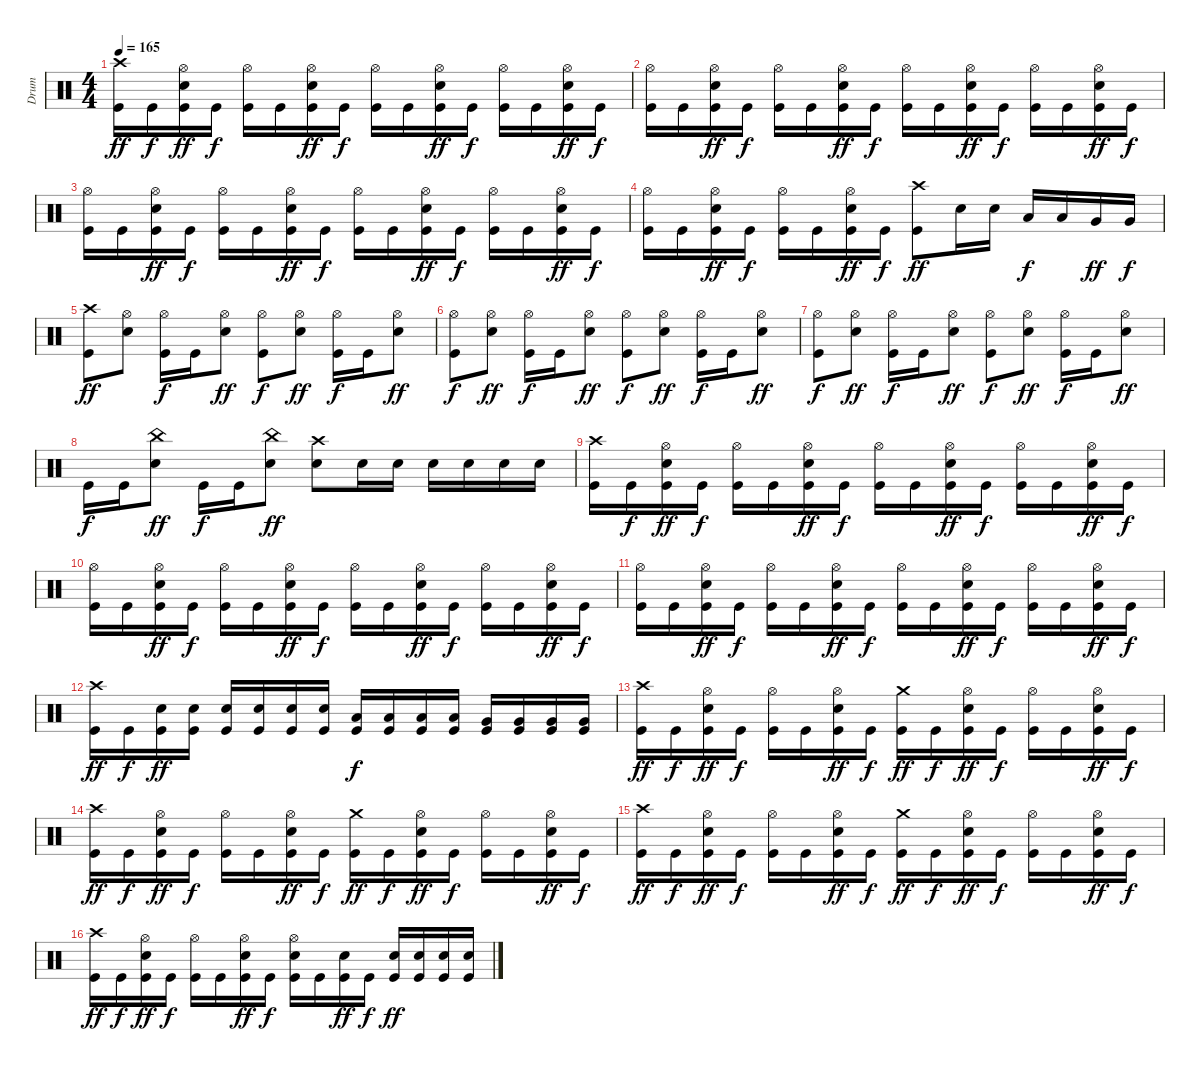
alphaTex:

\track ("Drum" "Drum") {instrument percussion}
\staff {score}
\articulation defaults
\ts (4 4)
\tempo 165
\clef neutral
\ks c
("Kick (hit)" "Crash high (hit)").16{dy ff} "Kick (hit)".16{dy f} ("Kick (hit)" "Electric Snare (hit)" "Hi-Hat (open)").16{dy ff} "Kick (hit)".16{dy f} ("Kick (hit)" "Hi-Hat (open)").16 "Kick (hit)".16 ("Kick (hit)" "Electric Snare (hit)" "Hi-Hat (open)").16{dy ff} "Kick (hit)".16{dy f} ("Kick (hit)" "Hi-Hat (open)").16 "Kick (hit)".16 ("Kick (hit)" "Electric Snare (hit)" "Hi-Hat (open)").16{dy ff} "Kick (hit)".16{dy f} ("Kick (hit)" "Hi-Hat (open)").16 "Kick (hit)".16 ("Kick (hit)" "Electric Snare (hit)" "Hi-Hat (open)").16{dy ff} "Kick (hit)".16{dy f} |
("Kick (hit)" "Hi-Hat (open)").16 "Kick (hit)".16 ("Kick (hit)" "Electric Snare (hit)" "Hi-Hat (open)").16{dy ff} "Kick (hit)".16{dy f} ("Kick (hit)" "Hi-Hat (open)").16 "Kick (hit)".16 ("Kick (hit)" "Electric Snare (hit)" "Hi-Hat (open)").16{dy ff} "Kick (hit)".16{dy f} ("Kick (hit)" "Hi-Hat (open)").16 "Kick (hit)".16 ("Kick (hit)" "Electric Snare (hit)" "Hi-Hat (open)").16{dy ff} "Kick (hit)".16{dy f} ("Kick (hit)" "Hi-Hat (open)").16 "Kick (hit)".16 ("Kick (hit)" "Electric Snare (hit)" "Hi-Hat (open)").16{dy ff} "Kick (hit)".16{dy f} |
("Kick (hit)" "Hi-Hat (open)").16 "Kick (hit)".16 ("Kick (hit)" "Electric Snare (hit)" "Hi-Hat (open)").16{dy ff} "Kick (hit)".16{dy f} ("Kick (hit)" "Hi-Hat (open)").16 "Kick (hit)".16 ("Kick (hit)" "Electric Snare (hit)" "Hi-Hat (open)").16{dy ff} "Kick (hit)".16{dy f} ("Kick (hit)" "Hi-Hat (open)").16 "Kick (hit)".16 ("Kick (hit)" "Electric Snare (hit)" "Hi-Hat (open)").16{dy ff} "Kick (hit)".16{dy f} ("Kick (hit)" "Hi-Hat (open)").16 "Kick (hit)".16 ("Kick (hit)" "Electric Snare (hit)" "Hi-Hat (open)").16{dy ff} "Kick (hit)".16{dy f} |
("Kick (hit)" "Hi-Hat (open)").16 "Kick (hit)".16 ("Kick (hit)" "Electric Snare (hit)" "Hi-Hat (open)").16{dy ff} "Kick (hit)".16{dy f} ("Kick (hit)" "Hi-Hat (open)").16 "Kick (hit)".16 ("Kick (hit)" "Electric Snare (hit)" "Hi-Hat (open)").16{dy ff} "Kick (hit)".16{dy f} ("Kick (hit)" "Crash high (hit)").8{dy ff} "Electric Snare (hit)".16 "Electric Snare (hit)".16 "Low Tom (hit)".16{dy f} "Low Tom (hit)".16 "Very Low Tom (hit)".16{dy ff} "Very Low Tom (hit)".16{dy f} |
("Kick (hit)" "Crash high (hit)").8{dy ff} ("Electric Snare (hit)" "Hi-Hat (open)").8 ("Kick (hit)" "Hi-Hat (open)").16{dy f} "Kick (hit)".16 ("Electric Snare (hit)" "Hi-Hat (open)").8{dy ff} ("Kick (hit)" "Hi-Hat (open)").8{dy f} ("Electric Snare (hit)" "Hi-Hat (open)").8{dy ff} ("Kick (hit)" "Hi-Hat (open)").16{dy f} "Kick (hit)".16 ("Electric Snare (hit)" "Hi-Hat (open)").8{dy ff} |
("Kick (hit)" "Hi-Hat (open)").8{dy f} ("Electric Snare (hit)" "Hi-Hat (open)").8{dy ff} ("Kick (hit)" "Hi-Hat (open)").16{dy f} "Kick (hit)".16 ("Electric Snare (hit)" "Hi-Hat (open)").8{dy ff} ("Kick (hit)" "Hi-Hat (open)").8{dy f} ("Electric Snare (hit)" "Hi-Hat (open)").8{dy ff} ("Kick (hit)" "Hi-Hat (open)").16{dy f} "Kick (hit)".16 ("Electric Snare (hit)" "Hi-Hat (open)").8{dy ff} |
("Kick (hit)" "Hi-Hat (open)").8{dy f} ("Electric Snare (hit)" "Hi-Hat (open)").8{dy ff} ("Kick (hit)" "Hi-Hat (open)").16{dy f} "Kick (hit)".16 ("Electric Snare (hit)" "Hi-Hat (open)").8{dy ff} ("Kick (hit)" "Hi-Hat (open)").8{dy f} ("Electric Snare (hit)" "Hi-Hat (open)").8{dy ff} ("Kick (hit)" "Hi-Hat (open)").16{dy f} "Kick (hit)".16 ("Electric Snare (hit)" "Hi-Hat (open)").8{dy ff} |
"Kick (hit)".16{dy f} "Kick (hit)".16 ("Electric Snare (hit)" "China (hit)").8{dy ff} "Kick (hit)".16{dy f} "Kick (hit)".16 ("Electric Snare (hit)" "China (hit)").8{dy ff} ("Electric Snare (hit)" "Crash high (hit)").8 "Electric Snare (hit)".16 "Electric Snare (hit)".16 "Electric Snare (hit)".16 "Electric Snare (hit)".16 "Electric Snare (hit)".16 "Electric Snare (hit)".16 |
("Kick (hit)" "Crash high (hit)").16 "Kick (hit)".16{dy f} ("Kick (hit)" "Electric Snare (hit)" "Hi-Hat (open)").16{dy ff} "Kick (hit)".16{dy f} ("Kick (hit)" "Hi-Hat (open)").16 "Kick (hit)".16 ("Kick (hit)" "Electric Snare (hit)" "Hi-Hat (open)").16{dy ff} "Kick (hit)".16{dy f} ("Kick (hit)" "Hi-Hat (open)").16 "Kick (hit)".16 ("Kick (hit)" "Electric Snare (hit)" "Hi-Hat (open)").16{dy ff} "Kick (hit)".16{dy f} ("Kick (hit)" "Hi-Hat (open)").16 "Kick (hit)".16 ("Kick (hit)" "Electric Snare (hit)" "Hi-Hat (open)").16{dy ff} "Kick (hit)".16{dy f} |
("Kick (hit)" "Hi-Hat (open)").16 "Kick (hit)".16 ("Kick (hit)" "Electric Snare (hit)" "Hi-Hat (open)").16{dy ff} "Kick (hit)".16{dy f} ("Kick (hit)" "Hi-Hat (open)").16 "Kick (hit)".16 ("Kick (hit)" "Electric Snare (hit)" "Hi-Hat (open)").16{dy ff} "Kick (hit)".16{dy f} ("Kick (hit)" "Hi-Hat (open)").16 "Kick (hit)".16 ("Kick (hit)" "Electric Snare (hit)" "Hi-Hat (open)").16{dy ff} "Kick (hit)".16{dy f} ("Kick (hit)" "Hi-Hat (open)").16 "Kick (hit)".16 ("Kick (hit)" "Electric Snare (hit)" "Hi-Hat (open)").16{dy ff} "Kick (hit)".16{dy f} |
("Kick (hit)" "Hi-Hat (open)").16 "Kick (hit)".16 ("Kick (hit)" "Electric Snare (hit)" "Hi-Hat (open)").16{dy ff} "Kick (hit)".16{dy f} ("Kick (hit)" "Hi-Hat (open)").16 "Kick (hit)".16 ("Kick (hit)" "Electric Snare (hit)" "Hi-Hat (open)").16{dy ff} "Kick (hit)".16{dy f} ("Kick (hit)" "Hi-Hat (open)").16 "Kick (hit)".16 ("Kick (hit)" "Electric Snare (hit)" "Hi-Hat (open)").16{dy ff} "Kick (hit)".16{dy f} ("Kick (hit)" "Hi-Hat (open)").16 "Kick (hit)".16 ("Kick (hit)" "Electric Snare (hit)" "Hi-Hat (open)").16{dy ff} "Kick (hit)".16{dy f} |
("Kick (hit)" "Crash high (hit)").16{dy ff} "Kick (hit)".16{dy f} ("Kick (hit)" "Electric Snare (hit)").16{dy ff} ("Kick (hit)" "Electric Snare (hit)").16 ("Kick (hit)" "Electric Snare (hit)").16 ("Kick (hit)" "Electric Snare (hit)").16 ("Kick (hit)" "Electric Snare (hit)").16 ("Kick (hit)" "Electric Snare (hit)").16 ("Kick (hit)" "Low Tom (hit)").16{dy f} ("Kick (hit)" "Low Tom (hit)").16 ("Kick (hit)" "Low Tom (hit)").16 ("Kick (hit)" "Low Tom (hit)").16 ("Kick (hit)" "Very Low Tom (hit)").16 ("Kick (hit)" "Very Low Tom (hit)").16 ("Kick (hit)" "Very Low Tom (hit)").16 ("Kick (hit)" "Very Low Tom (hit)").16 |
("Kick (hit)" "Crash high (hit)").16{dy ff} "Kick (hit)".16{dy f} ("Kick (hit)" "Electric Snare (hit)" "Hi-Hat (open)").16{dy ff} "Kick (hit)".16{dy f} ("Kick (hit)" "Hi-Hat (open)").16 "Kick (hit)".16 ("Kick (hit)" "Electric Snare (hit)" "Hi-Hat (open)").16{dy ff} "Kick (hit)".16{dy f} ("Kick (hit)" "Crash medium (hit)").16{dy ff} "Kick (hit)".16{dy f} ("Kick (hit)" "Electric Snare (hit)" "Hi-Hat (open)").16{dy ff} "Kick (hit)".16{dy f} ("Kick (hit)" "Hi-Hat (open)").16 "Kick (hit)".16 ("Kick (hit)" "Electric Snare (hit)" "Hi-Hat (open)").16{dy ff} "Kick (hit)".16{dy f} |
("Kick (hit)" "Crash high (hit)").16{dy ff} "Kick (hit)".16{dy f} ("Kick (hit)" "Electric Snare (hit)" "Hi-Hat (open)").16{dy ff} "Kick (hit)".16{dy f} ("Kick (hit)" "Hi-Hat (open)").16 "Kick (hit)".16 ("Kick (hit)" "Electric Snare (hit)" "Hi-Hat (open)").16{dy ff} "Kick (hit)".16{dy f} ("Kick (hit)" "Crash medium (hit)").16{dy ff} "Kick (hit)".16{dy f} ("Kick (hit)" "Electric Snare (hit)" "Hi-Hat (open)").16{dy ff} "Kick (hit)".16{dy f} ("Kick (hit)" "Hi-Hat (open)").16 "Kick (hit)".16 ("Kick (hit)" "Electric Snare (hit)" "Hi-Hat (open)").16{dy ff} "Kick (hit)".16{dy f} |
("Kick (hit)" "Crash high (hit)").16{dy ff} "Kick (hit)".16{dy f} ("Kick (hit)" "Electric Snare (hit)" "Hi-Hat (open)").16{dy ff} "Kick (hit)".16{dy f} ("Kick (hit)" "Hi-Hat (open)").16 "Kick (hit)".16 ("Kick (hit)" "Electric Snare (hit)" "Hi-Hat (open)").16{dy ff} "Kick (hit)".16{dy f} ("Kick (hit)" "Crash medium (hit)").16{dy ff} "Kick (hit)".16{dy f} ("Kick (hit)" "Electric Snare (hit)" "Hi-Hat (open)").16{dy ff} "Kick (hit)".16{dy f} ("Kick (hit)" "Hi-Hat (open)").16 "Kick (hit)".16 ("Kick (hit)" "Electric Snare (hit)" "Hi-Hat (open)").16{dy ff} "Kick (hit)".16{dy f} |
("Kick (hit)" "Crash high (hit)").16{dy ff} "Kick (hit)".16{dy f} ("Kick (hit)" "Electric Snare (hit)" "Hi-Hat (open)").16{dy ff} "Kick (hit)".16{dy f} ("Kick (hit)" "Hi-Hat (open)").16 "Kick (hit)".16 ("Kick (hit)" "Electric Snare (hit)" "Hi-Hat (open)").16{dy ff} "Kick (hit)".16{dy f} ("Kick (hit)" "Electric Snare (hit)" "Hi-Hat (open)").16 "Kick (hit)".16 ("Kick (hit)" "Electric Snare (hit)").16{dy ff} "Kick (hit)".16{dy f} ("Kick (hit)" "Electric Snare (hit)").16{dy ff} ("Kick (hit)" "Electric Snare (hit)").16 ("Kick (hit)" "Electric Snare (hit)").16 ("Kick (hit)" "Electric Snare (hit)").16
